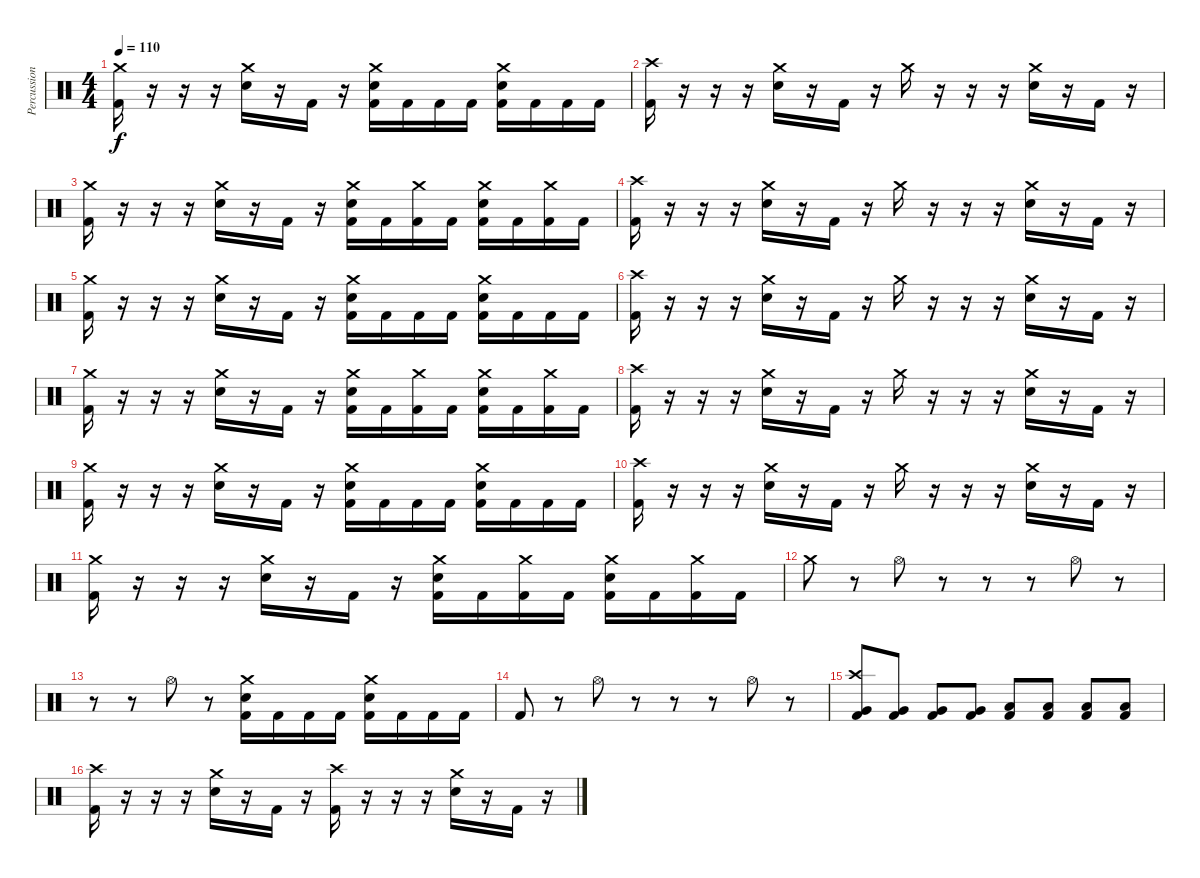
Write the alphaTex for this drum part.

\track ("Percussion" "Percussion") {instrument percussion}
\staff {score}
\articulation defaults
\ts (4 4)
\tempo 110
\clef neutral
\ks c
("Crash medium (hit)" "Kick (hit) 2").16{dy f} r.16 r.16 r.16 ("Crash medium (hit)" "Electric Snare (hit)").16 r.16 "Kick (hit) 2".16 r.16 ("Crash medium (hit)" "Electric Snare (hit)" "Kick (hit) 2").16 "Kick (hit) 2".16 "Kick (hit) 2".16 "Kick (hit) 2".16 ("Crash medium (hit)" "Electric Snare (hit)" "Kick (hit) 2").16 "Kick (hit) 2".16 "Kick (hit) 2".16 "Kick (hit) 2".16 |
("Crash high (hit)" "Kick (hit) 2").16 r.16 r.16 r.16 ("Crash medium (hit)" "Electric Snare (hit)").16 r.16 "Kick (hit) 2".16 r.16 "Crash medium (hit)".16 r.16 r.16 r.16 ("Crash medium (hit)" "Electric Snare (hit)").16 r.16 "Kick (hit) 2".16 r.16 |
("Crash medium (hit)" "Kick (hit) 2").16 r.16 r.16 r.16 ("Crash medium (hit)" "Electric Snare (hit)").16 r.16 "Kick (hit) 2".16 r.16 ("Crash medium (hit)" "Electric Snare (hit)" "Kick (hit) 2").16 "Kick (hit) 2".16 ("Crash medium (hit)" "Kick (hit) 2").16 "Kick (hit) 2".16 ("Crash medium (hit)" "Electric Snare (hit)" "Kick (hit) 2").16 "Kick (hit) 2".16 ("Crash medium (hit)" "Kick (hit) 2").16 "Kick (hit) 2".16 |
("Crash high (hit)" "Kick (hit) 2").16 r.16 r.16 r.16 ("Crash medium (hit)" "Electric Snare (hit)").16 r.16 "Kick (hit) 2".16 r.16 "Crash medium (hit)".16 r.16 r.16 r.16 ("Crash medium (hit)" "Electric Snare (hit)").16 r.16 "Kick (hit) 2".16 r.16 |
("Crash medium (hit)" "Kick (hit) 2").16 r.16 r.16 r.16 ("Crash medium (hit)" "Electric Snare (hit)").16 r.16 "Kick (hit) 2".16 r.16 ("Crash medium (hit)" "Electric Snare (hit)" "Kick (hit) 2").16 "Kick (hit) 2".16 "Kick (hit) 2".16 "Kick (hit) 2".16 ("Crash medium (hit)" "Electric Snare (hit)" "Kick (hit) 2").16 "Kick (hit) 2".16 "Kick (hit) 2".16 "Kick (hit) 2".16 |
("Crash high (hit)" "Kick (hit) 2").16 r.16 r.16 r.16 ("Crash medium (hit)" "Electric Snare (hit)").16 r.16 "Kick (hit) 2".16 r.16 "Crash medium (hit)".16 r.16 r.16 r.16 ("Crash medium (hit)" "Electric Snare (hit)").16 r.16 "Kick (hit) 2".16 r.16 |
("Crash medium (hit)" "Kick (hit) 2").16 r.16 r.16 r.16 ("Crash medium (hit)" "Electric Snare (hit)").16 r.16 "Kick (hit) 2".16 r.16 ("Crash medium (hit)" "Electric Snare (hit)" "Kick (hit) 2").16 "Kick (hit) 2".16 ("Crash medium (hit)" "Kick (hit) 2").16 "Kick (hit) 2".16 ("Crash medium (hit)" "Electric Snare (hit)" "Kick (hit) 2").16 "Kick (hit) 2".16 ("Crash medium (hit)" "Kick (hit) 2").16 "Kick (hit) 2".16 |
("Crash high (hit)" "Kick (hit) 2").16 r.16 r.16 r.16 ("Crash medium (hit)" "Electric Snare (hit)").16 r.16 "Kick (hit) 2".16 r.16 "Crash medium (hit)".16 r.16 r.16 r.16 ("Crash medium (hit)" "Electric Snare (hit)").16 r.16 "Kick (hit) 2".16 r.16 |
("Crash medium (hit)" "Kick (hit) 2").16 r.16 r.16 r.16 ("Crash medium (hit)" "Electric Snare (hit)").16 r.16 "Kick (hit) 2".16 r.16 ("Crash medium (hit)" "Electric Snare (hit)" "Kick (hit) 2").16 "Kick (hit) 2".16 "Kick (hit) 2".16 "Kick (hit) 2".16 ("Crash medium (hit)" "Electric Snare (hit)" "Kick (hit) 2").16 "Kick (hit) 2".16 "Kick (hit) 2".16 "Kick (hit) 2".16 |
("Crash high (hit)" "Kick (hit) 2").16 r.16 r.16 r.16 ("Crash medium (hit)" "Electric Snare (hit)").16 r.16 "Kick (hit) 2".16 r.16 "Crash medium (hit)".16 r.16 r.16 r.16 ("Crash medium (hit)" "Electric Snare (hit)").16 r.16 "Kick (hit) 2".16 r.16 |
("Crash medium (hit)" "Kick (hit) 2").16 r.16 r.16 r.16 ("Crash medium (hit)" "Electric Snare (hit)").16 r.16 "Kick (hit) 2".16 r.16 ("Crash medium (hit)" "Electric Snare (hit)" "Kick (hit) 2").16 "Kick (hit) 2".16 ("Crash medium (hit)" "Kick (hit) 2").16 "Kick (hit) 2".16 ("Crash medium (hit)" "Electric Snare (hit)" "Kick (hit) 2").16 "Kick (hit) 2".16 ("Crash medium (hit)" "Kick (hit) 2").16 "Kick (hit) 2".16 |
"Crash medium (hit)".8 r.8 "Hi-Hat (open)".8 r.8 r.8 r.8 "Hi-Hat (open)".8 r.8 |
r.8 r.8 "Hi-Hat (open)".8 r.8 ("Crash medium (hit)" "Electric Snare (hit)" "Kick (hit) 2").16 "Kick (hit) 2".16 "Kick (hit) 2".16 "Kick (hit) 2".16 ("Crash medium (hit)" "Electric Snare (hit)" "Kick (hit) 2").16 "Kick (hit) 2".16 "Kick (hit) 2".16 "Kick (hit) 2".16 |
"Kick (hit) 2".8 r.8 "Hi-Hat (open)".8 r.8 r.8 r.8 "Hi-Hat (open)".8 r.8 |
("Crash high (hit)" "Very Low Tom (hit)" "Kick (hit) 2").8 ("Very Low Tom (hit)" "Kick (hit) 2").8 ("Very Low Tom (hit)" "Kick (hit) 2").8 ("Very Low Tom (hit)" "Kick (hit) 2").8 ("Low Floor Tom (hit)" "Kick (hit) 2").8 ("Low Floor Tom (hit)" "Kick (hit) 2").8 ("Low Floor Tom (hit)" "Kick (hit) 2").8 ("Low Floor Tom (hit)" "Kick (hit) 2").8 |
("Crash high (hit)" "Kick (hit) 2").16 r.16 r.16 r.16 ("Crash medium (hit)" "Electric Snare (hit)").16 r.16 "Kick (hit) 2".16 r.16 ("Crash high (hit)" "Kick (hit) 2").16 r.16 r.16 r.16 ("Crash medium (hit)" "Electric Snare (hit)").16 r.16 "Kick (hit) 2".16 r.16
